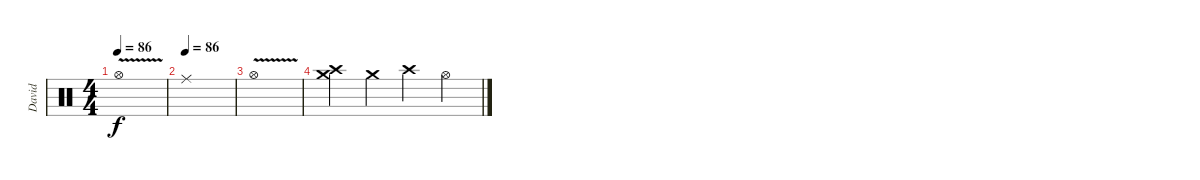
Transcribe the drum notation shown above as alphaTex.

\track ("David" "David") {instrument percussion}
\staff {score}
\articulation defaults
\ts (4 4)
\tempo 86
\clef neutral
\ks c "Hi-Hat (open)"{v}.1{dy f}
|
\tempo (86)
"Ride (middle)".1 |
"Hi-Hat (open)"{v}.1 |
("Crash medium (hit)" "Crash high (hit)").4 "Crash medium (hit)".4 "Crash high (hit)".4 "Hi-Hat (open)".4
